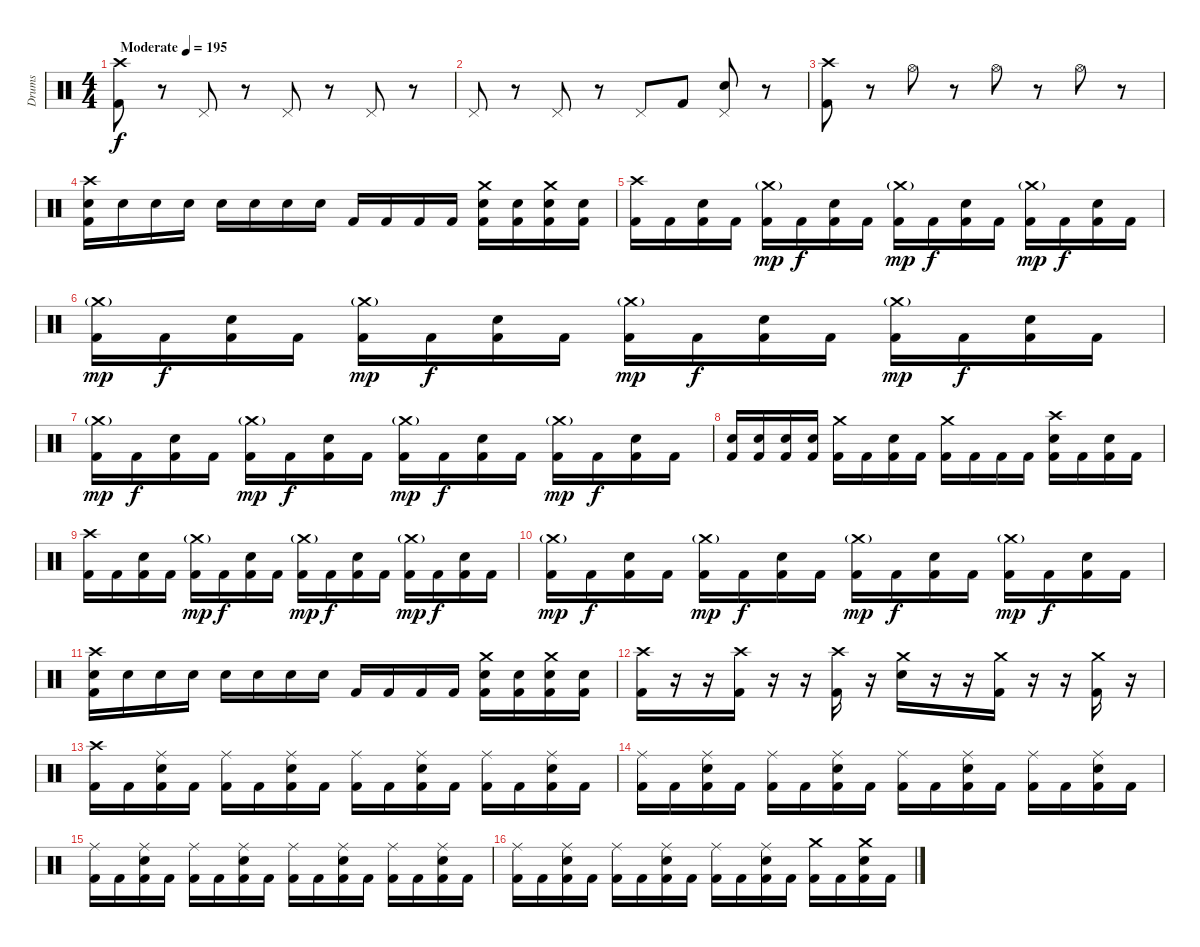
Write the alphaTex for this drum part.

\track ("Drums" "Drums") {instrument percussion}
\staff {score}
\articulation defaults
\ts (4 4)
\tempo (195 "Moderate")
\clef neutral
\ks c
("Crash high (hit)" "Kick (hit) 2").8{dy f} r.8 "Pedal Hi-Hat (hit)".8 r.8 "Pedal Hi-Hat (hit)".8 r.8 "Pedal Hi-Hat (hit)".8 r.8 |
"Pedal Hi-Hat (hit)".8 r.8 "Pedal Hi-Hat (hit)".8 r.8 "Pedal Hi-Hat (hit)".8 "Kick (hit) 2".8 ("Pedal Hi-Hat (hit)" "Electric Snare (hit)").8 r.8 |
("Crash high (hit)" "Kick (hit) 2").8 r.8 "Hi-Hat (open)".8 r.8 "Hi-Hat (open)".8 r.8 "Hi-Hat (open)".8 r.8 |
("Crash high (hit)" "Electric Snare (hit)" "Kick (hit) 2").16 "Electric Snare (hit)".16 "Electric Snare (hit)".16 "Electric Snare (hit)".16 "Electric Snare (hit)".16 "Electric Snare (hit)".16 "Electric Snare (hit)".16 "Electric Snare (hit)".16 "Kick (hit) 2".16 "Kick (hit) 2".16 "Kick (hit) 2".16 "Kick (hit) 2".16 ("Electric Snare (hit)" "Crash medium (hit)" "Kick (hit) 2").16 ("Electric Snare (hit)" "Kick (hit) 2").16 ("Electric Snare (hit)" "Crash medium (hit)" "Kick (hit) 2").16 ("Electric Snare (hit)" "Kick (hit) 2").16 |
("Crash high (hit)" "Kick (hit) 2").16 "Kick (hit) 2".16 ("Kick (hit) 2" "Electric Snare (hit)").16 "Kick (hit) 2".16 ("Crash medium (hit)"{g} "Kick (hit) 2").16{dy mp} "Kick (hit) 2".16{dy f} ("Kick (hit) 2" "Electric Snare (hit)").16 "Kick (hit) 2".16 ("Crash medium (hit)"{g} "Kick (hit) 2").16{dy mp} "Kick (hit) 2".16{dy f} ("Kick (hit) 2" "Electric Snare (hit)").16 "Kick (hit) 2".16 ("Crash medium (hit)"{g} "Kick (hit) 2").16{dy mp} "Kick (hit) 2".16{dy f} ("Kick (hit) 2" "Electric Snare (hit)").16 "Kick (hit) 2".16 |
("Crash medium (hit)"{g} "Kick (hit) 2").16{dy mp} "Kick (hit) 2".16{dy f} ("Kick (hit) 2" "Electric Snare (hit)").16 "Kick (hit) 2".16 ("Crash medium (hit)"{g} "Kick (hit) 2").16{dy mp} "Kick (hit) 2".16{dy f} ("Kick (hit) 2" "Electric Snare (hit)").16 "Kick (hit) 2".16 ("Crash medium (hit)"{g} "Kick (hit) 2").16{dy mp} "Kick (hit) 2".16{dy f} ("Kick (hit) 2" "Electric Snare (hit)").16 "Kick (hit) 2".16 ("Crash medium (hit)"{g} "Kick (hit) 2").16{dy mp} "Kick (hit) 2".16{dy f} ("Kick (hit) 2" "Electric Snare (hit)").16 "Kick (hit) 2".16 |
("Crash medium (hit)"{g} "Kick (hit) 2").16{dy mp} "Kick (hit) 2".16{dy f} ("Kick (hit) 2" "Electric Snare (hit)").16 "Kick (hit) 2".16 ("Crash medium (hit)"{g} "Kick (hit) 2").16{dy mp} "Kick (hit) 2".16{dy f} ("Kick (hit) 2" "Electric Snare (hit)").16 "Kick (hit) 2".16 ("Crash medium (hit)"{g} "Kick (hit) 2").16{dy mp} "Kick (hit) 2".16{dy f} ("Kick (hit) 2" "Electric Snare (hit)").16 "Kick (hit) 2".16 ("Crash medium (hit)"{g} "Kick (hit) 2").16{dy mp} "Kick (hit) 2".16{dy f} ("Kick (hit) 2" "Electric Snare (hit)").16 "Kick (hit) 2".16 |
("Kick (hit) 2" "Electric Snare (hit)").16 ("Kick (hit) 2" "Electric Snare (hit)").16 ("Kick (hit) 2" "Electric Snare (hit)").16 ("Kick (hit) 2" "Electric Snare (hit)").16 ("Crash medium (hit)" "Kick (hit) 2").16 "Kick (hit) 2".16 ("Kick (hit) 2" "Electric Snare (hit)").16 "Kick (hit) 2".16 ("Crash medium (hit)" "Kick (hit) 2").16 "Kick (hit) 2".16 "Kick (hit) 2".16 "Kick (hit) 2".16 ("Crash high (hit)" "Kick (hit) 2" "Electric Snare (hit)").16 "Kick (hit) 2".16 ("Kick (hit) 2" "Electric Snare (hit)").16 "Kick (hit) 2".16 |
("Crash high (hit)" "Kick (hit) 2").16 "Kick (hit) 2".16 ("Kick (hit) 2" "Electric Snare (hit)").16 "Kick (hit) 2".16 ("Crash medium (hit)"{g} "Kick (hit) 2").16{dy mp} "Kick (hit) 2".16{dy f} ("Kick (hit) 2" "Electric Snare (hit)").16 "Kick (hit) 2".16 ("Crash medium (hit)"{g} "Kick (hit) 2").16{dy mp} "Kick (hit) 2".16{dy f} ("Kick (hit) 2" "Electric Snare (hit)").16 "Kick (hit) 2".16 ("Crash medium (hit)"{g} "Kick (hit) 2").16{dy mp} "Kick (hit) 2".16{dy f} ("Kick (hit) 2" "Electric Snare (hit)").16 "Kick (hit) 2".16 |
("Crash medium (hit)"{g} "Kick (hit) 2").16{dy mp} "Kick (hit) 2".16{dy f} ("Kick (hit) 2" "Electric Snare (hit)").16 "Kick (hit) 2".16 ("Crash medium (hit)"{g} "Kick (hit) 2").16{dy mp} "Kick (hit) 2".16{dy f} ("Kick (hit) 2" "Electric Snare (hit)").16 "Kick (hit) 2".16 ("Crash medium (hit)"{g} "Kick (hit) 2").16{dy mp} "Kick (hit) 2".16{dy f} ("Kick (hit) 2" "Electric Snare (hit)").16 "Kick (hit) 2".16 ("Crash medium (hit)"{g} "Kick (hit) 2").16{dy mp} "Kick (hit) 2".16{dy f} ("Kick (hit) 2" "Electric Snare (hit)").16 "Kick (hit) 2".16 |
("Crash high (hit)" "Electric Snare (hit)" "Kick (hit) 2").16 "Electric Snare (hit)".16 "Electric Snare (hit)".16 "Electric Snare (hit)".16 "Electric Snare (hit)".16 "Electric Snare (hit)".16 "Electric Snare (hit)".16 "Electric Snare (hit)".16 "Kick (hit) 2".16 "Kick (hit) 2".16 "Kick (hit) 2".16 "Kick (hit) 2".16 ("Electric Snare (hit)" "Crash medium (hit)" "Kick (hit) 2").16 ("Electric Snare (hit)" "Kick (hit) 2").16 ("Electric Snare (hit)" "Crash medium (hit)" "Kick (hit) 2").16 ("Electric Snare (hit)" "Kick (hit) 2").16 |
("Crash high (hit)" "Kick (hit) 2").16 r.16 r.16 ("Crash high (hit)" "Kick (hit) 2").16 r.16 r.16 ("Crash high (hit)" "Kick (hit) 2").16 r.16 ("Crash medium (hit)" "Electric Snare (hit)").16 r.16 r.16 ("Crash medium (hit)" "Kick (hit) 2").16 r.16 r.16 ("Crash medium (hit)" "Kick (hit) 2").16 r.16 |
("Crash high (hit)" "Kick (hit) 2").16 "Kick (hit) 2".16 ("Ride (middle)" "Kick (hit) 2" "Electric Snare (hit)").16 "Kick (hit) 2".16 ("Ride (middle)" "Kick (hit) 2").16 "Kick (hit) 2".16 ("Ride (middle)" "Kick (hit) 2" "Electric Snare (hit)").16 "Kick (hit) 2".16 ("Ride (middle)" "Kick (hit) 2").16 "Kick (hit) 2".16 ("Ride (middle)" "Kick (hit) 2" "Electric Snare (hit)").16 "Kick (hit) 2".16 ("Ride (middle)" "Kick (hit) 2").16 "Kick (hit) 2".16 ("Ride (middle)" "Kick (hit) 2" "Electric Snare (hit)").16 "Kick (hit) 2".16 |
("Ride (middle)" "Kick (hit) 2").16 "Kick (hit) 2".16 ("Ride (middle)" "Kick (hit) 2" "Electric Snare (hit)").16 "Kick (hit) 2".16 ("Ride (middle)" "Kick (hit) 2").16 "Kick (hit) 2".16 ("Ride (middle)" "Kick (hit) 2" "Electric Snare (hit)").16 "Kick (hit) 2".16 ("Ride (middle)" "Kick (hit) 2").16 "Kick (hit) 2".16 ("Ride (middle)" "Kick (hit) 2" "Electric Snare (hit)").16 "Kick (hit) 2".16 ("Ride (middle)" "Kick (hit) 2").16 "Kick (hit) 2".16 ("Ride (middle)" "Kick (hit) 2" "Electric Snare (hit)").16 "Kick (hit) 2".16 |
("Ride (middle)" "Kick (hit) 2").16 "Kick (hit) 2".16 ("Ride (middle)" "Kick (hit) 2" "Electric Snare (hit)").16 "Kick (hit) 2".16 ("Ride (middle)" "Kick (hit) 2").16 "Kick (hit) 2".16 ("Ride (middle)" "Kick (hit) 2" "Electric Snare (hit)").16 "Kick (hit) 2".16 ("Ride (middle)" "Kick (hit) 2").16 "Kick (hit) 2".16 ("Ride (middle)" "Kick (hit) 2" "Electric Snare (hit)").16 "Kick (hit) 2".16 ("Ride (middle)" "Kick (hit) 2").16 "Kick (hit) 2".16 ("Ride (middle)" "Kick (hit) 2" "Electric Snare (hit)").16 "Kick (hit) 2".16 |
("Ride (middle)" "Kick (hit) 2").16 "Kick (hit) 2".16 ("Ride (middle)" "Kick (hit) 2" "Electric Snare (hit)").16 "Kick (hit) 2".16 ("Ride (middle)" "Kick (hit) 2").16 "Kick (hit) 2".16 ("Ride (middle)" "Kick (hit) 2" "Electric Snare (hit)").16 "Kick (hit) 2".16 ("Ride (middle)" "Kick (hit) 2").16 "Kick (hit) 2".16 ("Ride (middle)" "Kick (hit) 2" "Electric Snare (hit)").16 "Kick (hit) 2".16 ("Crash medium (hit)" "Kick (hit) 2").16 "Kick (hit) 2".16 ("Crash medium (hit)" "Kick (hit) 2" "Electric Snare (hit)").16 "Kick (hit) 2".16
